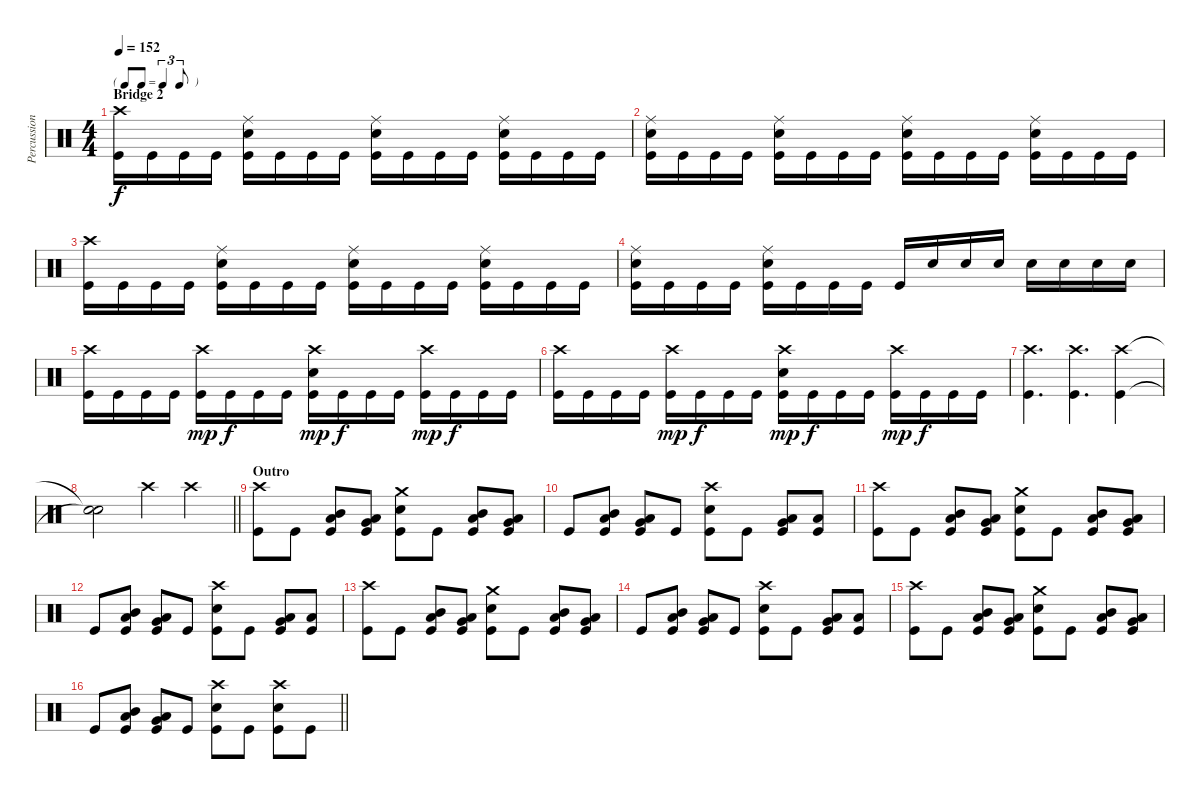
\track ("Percussion" "Percussion") {instrument percussion}
\staff {score}
\articulation defaults
\ts (4 4)
\tf triplet8th
\section ("" "Bridge 2")
\tempo 152
\clef neutral
\ks c
("Crash high (hit)" "Kick (hit)").16{dy f} "Kick (hit)".16 "Kick (hit)".16 "Kick (hit)".16 ("Snare (hit) 2" "Ride (middle)" "Kick (hit)").16 "Kick (hit)".16 "Kick (hit)".16 "Kick (hit)".16 ("Ride (middle)" "Snare (hit) 2" "Kick (hit)").16 "Kick (hit)".16 "Kick (hit)".16 "Kick (hit)".16 ("Snare (hit) 2" "Ride (middle)" "Kick (hit)").16 "Kick (hit)".16 "Kick (hit)".16 "Kick (hit)".16 |
("Snare (hit) 2" "Ride (middle)" "Kick (hit)").16 "Kick (hit)".16 "Kick (hit)".16 "Kick (hit)".16 ("Snare (hit) 2" "Ride (middle)" "Kick (hit)").16 "Kick (hit)".16 "Kick (hit)".16 "Kick (hit)".16 ("Ride (middle)" "Snare (hit) 2" "Kick (hit)").16 "Kick (hit)".16 "Kick (hit)".16 "Kick (hit)".16 ("Snare (hit) 2" "Ride (middle)" "Kick (hit)").16 "Kick (hit)".16 "Kick (hit)".16 "Kick (hit)".16 |
("Crash high (hit)" "Kick (hit)").16 "Kick (hit)".16 "Kick (hit)".16 "Kick (hit)".16 ("Snare (hit) 2" "Ride (middle)" "Kick (hit)").16 "Kick (hit)".16 "Kick (hit)".16 "Kick (hit)".16 ("Ride (middle)" "Snare (hit) 2" "Kick (hit)").16 "Kick (hit)".16 "Kick (hit)".16 "Kick (hit)".16 ("Snare (hit) 2" "Ride (middle)" "Kick (hit)").16 "Kick (hit)".16 "Kick (hit)".16 "Kick (hit)".16 |
("Ride (middle)" "Snare (hit) 2" "Kick (hit)").16 "Kick (hit)".16 "Kick (hit)".16 "Kick (hit)".16 ("Snare (hit) 2" "Ride (middle)" "Kick (hit)").16 "Kick (hit)".16 "Kick (hit)".16 "Kick (hit)".16 "Kick (hit)".16 "Snare (hit) 2".16 "Snare (hit) 2".16 "Snare (hit) 2".16 "Snare (hit) 2".16 "Snare (hit) 2".16 "Snare (hit) 2".16 "Snare (hit) 2".16 |
("Crash high (hit)" "Kick (hit)").16 "Kick (hit)".16 "Kick (hit)".16 "Kick (hit)".16 ("Crash high (hit)" "Kick (hit)").16{dy mp} "Kick (hit)".16{dy f} "Kick (hit)".16 "Kick (hit)".16 ("Crash high (hit)" "Snare (hit) 2" "Kick (hit)").16{dy mp} "Kick (hit)".16{dy f} "Kick (hit)".16 "Kick (hit)".16 ("Crash high (hit)" "Kick (hit)").16{dy mp} "Kick (hit)".16{dy f} "Kick (hit)".16 "Kick (hit)".16 |
("Crash high (hit)" "Kick (hit)").16 "Kick (hit)".16 "Kick (hit)".16 "Kick (hit)".16 ("Crash high (hit)" "Kick (hit)").16{dy mp} "Kick (hit)".16{dy f} "Kick (hit)".16 "Kick (hit)".16 ("Crash high (hit)" "Snare (hit) 2" "Kick (hit)").16{dy mp} "Kick (hit)".16{dy f} "Kick (hit)".16 "Kick (hit)".16 ("Crash high (hit)" "Kick (hit)").16{dy mp} "Kick (hit)".16{dy f} "Kick (hit)".16 "Kick (hit)".16 |
("Crash high (hit)" "Kick (hit)").4{d} ("Crash high (hit)" "Kick (hit)").4{d} ("Crash high (hit)" "Kick (hit)").4 |
\barLineRight lightlight
("Snare (hit)"{t} "Snare (hit)"{t}).2 "Crash high (hit)".4 "Crash high (hit)".4 |
\section ("" "Outro")
("Crash high (hit)" "Kick (hit)").8 "Kick (hit)".8 ("Mid Tom (hit)" "Low Tom (hit)" "Kick (hit)").8 ("Low Tom (hit)" "Very Low Tom (hit)" "Kick (hit)").8 ("Snare (hit) 2" "Crash medium (hit)" "Kick (hit)").8 "Kick (hit)".8 ("Low Tom (hit)" "Mid Tom (hit)" "Kick (hit)").8 ("Low Tom (hit)" "Very Low Tom (hit)" "Kick (hit)").8 |
"Kick (hit)".8 ("Low Tom (hit)" "Mid Tom (hit)" "Kick (hit)").8 ("Very Low Tom (hit)" "Low Tom (hit)" "Kick (hit)").8 "Kick (hit)".8 ("Crash high (hit)" "Snare (hit) 2" "Kick (hit)").8 "Kick (hit)".8 ("Very Low Tom (hit)" "Low Tom (hit)" "Kick (hit)").8 ("Low Floor Tom (hit)" "Kick (hit)").8 |
("Crash high (hit)" "Kick (hit)").8 "Kick (hit)".8 ("Mid Tom (hit)" "Low Tom (hit)" "Kick (hit)").8 ("Low Tom (hit)" "Very Low Tom (hit)" "Kick (hit)").8 ("Snare (hit) 2" "Crash medium (hit)" "Kick (hit)").8 "Kick (hit)".8 ("Low Tom (hit)" "Mid Tom (hit)" "Kick (hit)").8 ("Low Tom (hit)" "Very Low Tom (hit)" "Kick (hit)").8 |
"Kick (hit)".8 ("Low Tom (hit)" "Mid Tom (hit)" "Kick (hit)").8 ("Very Low Tom (hit)" "Low Tom (hit)" "Kick (hit)").8 "Kick (hit)".8 ("Crash high (hit)" "Snare (hit) 2" "Kick (hit)").8 "Kick (hit)".8 ("Very Low Tom (hit)" "Low Tom (hit)" "Kick (hit)").8 ("Low Floor Tom (hit)" "Kick (hit)").8 |
("Crash high (hit)" "Kick (hit)").8 "Kick (hit)".8 ("Mid Tom (hit)" "Low Tom (hit)" "Kick (hit)").8 ("Low Tom (hit)" "Very Low Tom (hit)" "Kick (hit)").8 ("Snare (hit) 2" "Crash medium (hit)" "Kick (hit)").8 "Kick (hit)".8 ("Low Tom (hit)" "Mid Tom (hit)" "Kick (hit)").8 ("Low Tom (hit)" "Very Low Tom (hit)" "Kick (hit)").8 |
"Kick (hit)".8 ("Low Tom (hit)" "Mid Tom (hit)" "Kick (hit)").8 ("Very Low Tom (hit)" "Low Tom (hit)" "Kick (hit)").8 "Kick (hit)".8 ("Crash high (hit)" "Snare (hit) 2" "Kick (hit)").8 "Kick (hit)".8 ("Very Low Tom (hit)" "Low Tom (hit)" "Kick (hit)").8 ("Low Floor Tom (hit)" "Kick (hit)").8 |
("Crash high (hit)" "Kick (hit)").8 "Kick (hit)".8 ("Mid Tom (hit)" "Low Tom (hit)" "Kick (hit)").8 ("Low Tom (hit)" "Very Low Tom (hit)" "Kick (hit)").8 ("Snare (hit) 2" "Crash medium (hit)" "Kick (hit)").8 "Kick (hit)".8 ("Low Tom (hit)" "Mid Tom (hit)" "Kick (hit)").8 ("Low Tom (hit)" "Very Low Tom (hit)" "Kick (hit)").8 |
\barLineRight lightlight "Kick (hit)".8
("Low Tom (hit)" "Mid Tom (hit)" "Kick (hit)").8 ("Very Low Tom (hit)" "Low Tom (hit)" "Kick (hit)").8 "Kick (hit)".8 ("Crash high (hit)" "Snare (hit) 2" "Kick (hit)").8 "Kick (hit)".8 ("Crash high (hit)" "Snare (hit) 2" "Kick (hit)").8 "Kick (hit)".8
